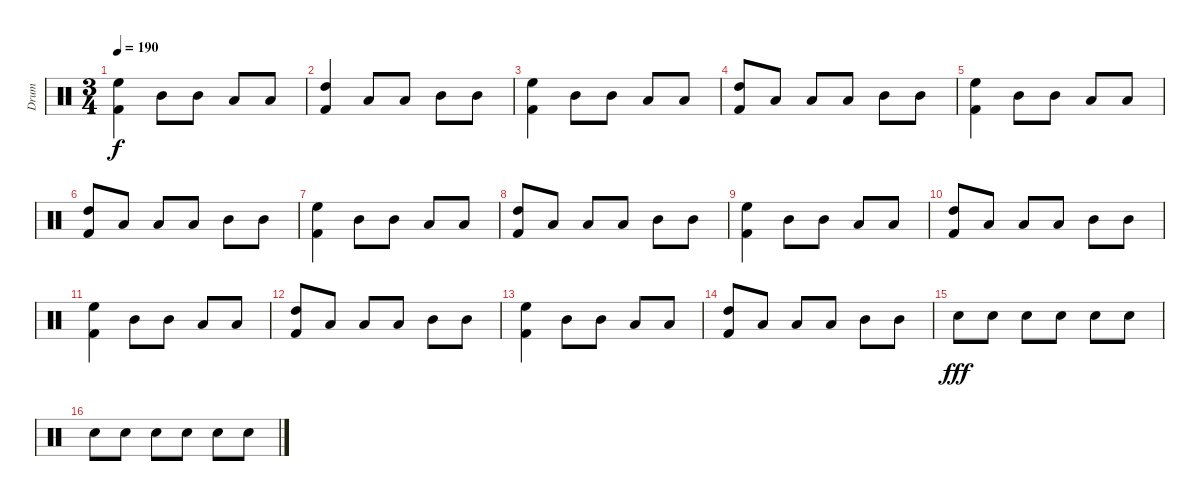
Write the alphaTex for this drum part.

\track ("Drum" "Drum") {instrument percussion}
\staff {score}
\articulation defaults
\ts (3 4)
\tempo 190
\clef neutral
\ks c
("High Floor Tom (hit)" "Kick (hit) 2").4{dy f} "Mid Tom (hit)".8 "Mid Tom (hit)".8 "Low Tom (hit)".8 "Low Tom (hit)".8 |
("High Tom (hit)" "Kick (hit) 2").4 "Low Tom (hit)".8 "Low Tom (hit)".8 "Mid Tom (hit)".8 "Mid Tom (hit)".8 |
("High Floor Tom (hit)" "Kick (hit) 2").4 "Mid Tom (hit)".8 "Mid Tom (hit)".8 "Low Tom (hit)".8 "Low Tom (hit)".8 |
("High Tom (hit)" "Kick (hit) 2").8 "Low Tom (hit)".8 "Low Tom (hit)".8 "Low Tom (hit)".8 "Mid Tom (hit)".8 "Mid Tom (hit)".8 |
("High Floor Tom (hit)" "Kick (hit) 2").4 "Mid Tom (hit)".8 "Mid Tom (hit)".8 "Low Tom (hit)".8 "Low Tom (hit)".8 |
("High Tom (hit)" "Kick (hit) 2").8 "Low Tom (hit)".8 "Low Tom (hit)".8 "Low Tom (hit)".8 "Mid Tom (hit)".8 "Mid Tom (hit)".8 |
("High Floor Tom (hit)" "Kick (hit) 2").4 "Mid Tom (hit)".8 "Mid Tom (hit)".8 "Low Tom (hit)".8 "Low Tom (hit)".8 |
("High Tom (hit)" "Kick (hit) 2").8 "Low Tom (hit)".8 "Low Tom (hit)".8 "Low Tom (hit)".8 "Mid Tom (hit)".8 "Mid Tom (hit)".8 |
("High Floor Tom (hit)" "Kick (hit) 2").4 "Mid Tom (hit)".8 "Mid Tom (hit)".8 "Low Tom (hit)".8 "Low Tom (hit)".8 |
("High Tom (hit)" "Kick (hit) 2").8 "Low Tom (hit)".8 "Low Tom (hit)".8 "Low Tom (hit)".8 "Mid Tom (hit)".8 "Mid Tom (hit)".8 |
("High Floor Tom (hit)" "Kick (hit) 2").4 "Mid Tom (hit)".8 "Mid Tom (hit)".8 "Low Tom (hit)".8 "Low Tom (hit)".8 |
("High Tom (hit)" "Kick (hit) 2").8 "Low Tom (hit)".8 "Low Tom (hit)".8 "Low Tom (hit)".8 "Mid Tom (hit)".8 "Mid Tom (hit)".8 |
("High Floor Tom (hit)" "Kick (hit) 2").4 "Mid Tom (hit)".8 "Mid Tom (hit)".8 "Low Tom (hit)".8 "Low Tom (hit)".8 |
("High Tom (hit)" "Kick (hit) 2").8 "Low Tom (hit)".8 "Low Tom (hit)".8 "Low Tom (hit)".8 "Mid Tom (hit)".8 "Mid Tom (hit)".8 |
"Snare (hit) 2".8{dy fff} "Snare (hit) 2".8 "Snare (hit) 2".8 "Snare (hit) 2".8 "Snare (hit) 2".8 "Snare (hit) 2".8 |
"Snare (hit) 2".8 "Snare (hit) 2".8 "Snare (hit) 2".8 "Snare (hit) 2".8 "Snare (hit) 2".8 "Snare (hit) 2".8
